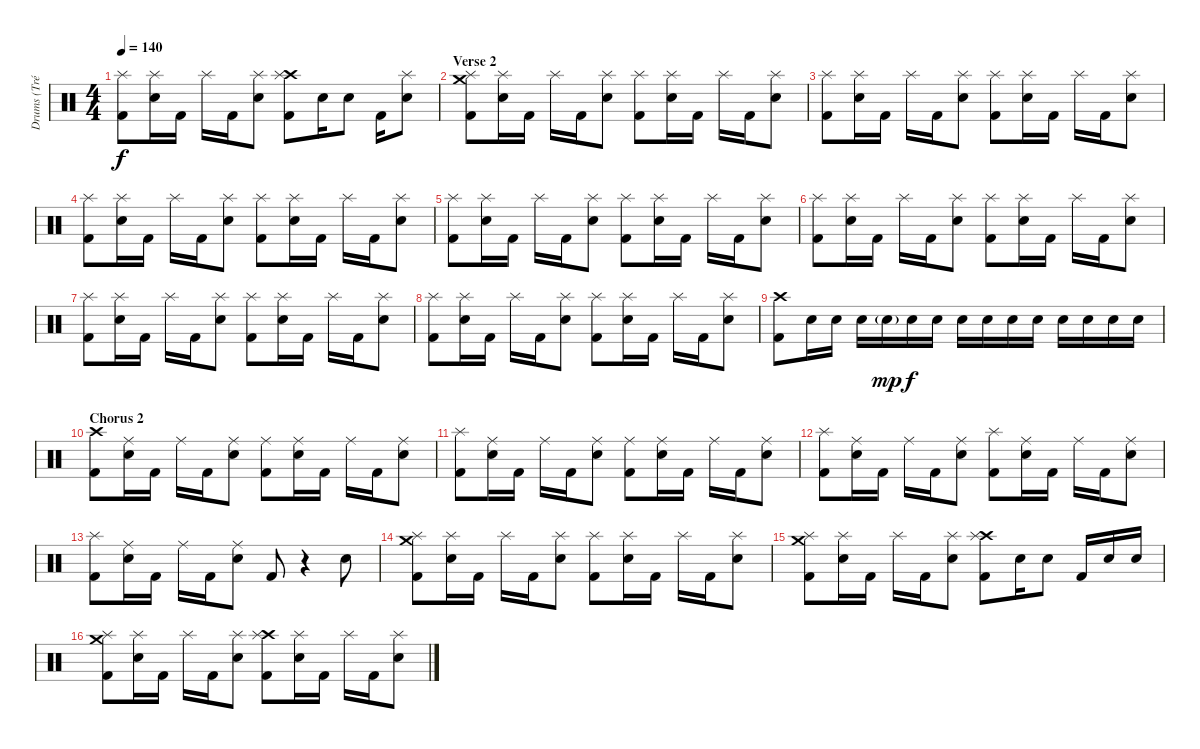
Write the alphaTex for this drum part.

\track ("Drums (Tré)" "Drums (Tré") {instrument percussion}
\staff {score}
\articulation defaults
\ts (4 4)
\tempo 140
\clef neutral
\ks c
("Splash (hit)" "Kick (hit) 2").8{dy f} ("Splash (hit)" "Electric Snare (hit)").16 "Kick (hit) 2".16 "Splash (hit)".16 "Kick (hit) 2".16 ("Splash (hit)" "Electric Snare (hit)").8 ("Crash high (hit)" "Splash (hit)" "Kick (hit) 2").8 "Electric Snare (hit)".16 "Electric Snare (hit)".8 "Kick (hit) 2".16 ("Splash (hit)" "Electric Snare (hit)").8 |
\section ("" "Verse 2")
("Crash medium (hit)" "Splash (hit)" "Kick (hit) 2").8 ("Splash (hit)" "Electric Snare (hit)").16 "Kick (hit) 2".16 "Splash (hit)".16 "Kick (hit) 2".16 ("Splash (hit)" "Electric Snare (hit)").8 ("Splash (hit)" "Kick (hit) 2").8 ("Splash (hit)" "Electric Snare (hit)").16 "Kick (hit) 2".16 "Splash (hit)".16 "Kick (hit) 2".16 ("Splash (hit)" "Electric Snare (hit)").8 |
("Splash (hit)" "Kick (hit) 2").8 ("Splash (hit)" "Electric Snare (hit)").16 "Kick (hit) 2".16 "Splash (hit)".16 "Kick (hit) 2".16 ("Splash (hit)" "Electric Snare (hit)").8 ("Splash (hit)" "Kick (hit) 2").8 ("Splash (hit)" "Electric Snare (hit)").16 "Kick (hit) 2".16 "Splash (hit)".16 "Kick (hit) 2".16 ("Splash (hit)" "Electric Snare (hit)").8 |
("Splash (hit)" "Kick (hit) 2").8 ("Splash (hit)" "Electric Snare (hit)").16 "Kick (hit) 2".16 "Splash (hit)".16 "Kick (hit) 2".16 ("Splash (hit)" "Electric Snare (hit)").8 ("Splash (hit)" "Kick (hit) 2").8 ("Splash (hit)" "Electric Snare (hit)").16 "Kick (hit) 2".16 "Splash (hit)".16 "Kick (hit) 2".16 ("Splash (hit)" "Electric Snare (hit)").8 |
("Splash (hit)" "Kick (hit) 2").8 ("Splash (hit)" "Electric Snare (hit)").16 "Kick (hit) 2".16 "Splash (hit)".16 "Kick (hit) 2".16 ("Splash (hit)" "Electric Snare (hit)").8 ("Splash (hit)" "Kick (hit) 2").8 ("Splash (hit)" "Electric Snare (hit)").16 "Kick (hit) 2".16 "Splash (hit)".16 "Kick (hit) 2".16 ("Splash (hit)" "Electric Snare (hit)").8 |
("Splash (hit)" "Kick (hit) 2").8 ("Splash (hit)" "Electric Snare (hit)").16 "Kick (hit) 2".16 "Splash (hit)".16 "Kick (hit) 2".16 ("Splash (hit)" "Electric Snare (hit)").8 ("Splash (hit)" "Kick (hit) 2").8 ("Splash (hit)" "Electric Snare (hit)").16 "Kick (hit) 2".16 "Splash (hit)".16 "Kick (hit) 2".16 ("Splash (hit)" "Electric Snare (hit)").8 |
("Splash (hit)" "Kick (hit) 2").8 ("Splash (hit)" "Electric Snare (hit)").16 "Kick (hit) 2".16 "Splash (hit)".16 "Kick (hit) 2".16 ("Splash (hit)" "Electric Snare (hit)").8 ("Splash (hit)" "Kick (hit) 2").8 ("Splash (hit)" "Electric Snare (hit)").16 "Kick (hit) 2".16 "Splash (hit)".16 "Kick (hit) 2".16 ("Splash (hit)" "Electric Snare (hit)").8 |
("Splash (hit)" "Kick (hit) 2").8 ("Splash (hit)" "Electric Snare (hit)").16 "Kick (hit) 2".16 "Splash (hit)".16 "Kick (hit) 2".16 ("Splash (hit)" "Electric Snare (hit)").8 ("Splash (hit)" "Kick (hit) 2").8 ("Splash (hit)" "Electric Snare (hit)").16 "Kick (hit) 2".16 "Splash (hit)".16 "Kick (hit) 2".16 ("Splash (hit)" "Electric Snare (hit)").8 |
("Crash high (hit)" "Kick (hit) 2").8 "Electric Snare (hit)".16 "Electric Snare (hit)".16 "Electric Snare (hit)".16 "Electric Snare (hit)"{g}.16{dy mp} "Electric Snare (hit)".16{dy f} "Electric Snare (hit)".16 "Electric Snare (hit)".16 "Electric Snare (hit)".16 "Electric Snare (hit)".16 "Electric Snare (hit)".16 "Electric Snare (hit)".16 "Electric Snare (hit)".16 "Electric Snare (hit)".16 "Electric Snare (hit)".16 |
\section ("" "Chorus 2")
("Crash high (hit)" "Kick (hit) 2").8 ("Ride (middle)" "Electric Snare (hit)").16 "Kick (hit) 2".16 "Ride (middle)".16 "Kick (hit) 2".16 ("Ride (middle)" "Electric Snare (hit)").8 ("Ride (middle)" "Kick (hit) 2").8 ("Ride (middle)" "Electric Snare (hit)").16 "Kick (hit) 2".16 "Ride (middle)".16 "Kick (hit) 2".16 ("Ride (middle)" "Electric Snare (hit)").8 |
("Splash (hit)" "Kick (hit) 2").8 ("Ride (middle)" "Electric Snare (hit)").16 "Kick (hit) 2".16 "Ride (middle)".16 "Kick (hit) 2".16 ("Ride (middle)" "Electric Snare (hit)").8 ("Ride (middle)" "Kick (hit) 2").8 ("Ride (middle)" "Electric Snare (hit)").16 "Kick (hit) 2".16 "Ride (middle)".16 "Kick (hit) 2".16 ("Ride (middle)" "Electric Snare (hit)").8 |
("Splash (hit)" "Kick (hit) 2").8 ("Ride (middle)" "Electric Snare (hit)").16 "Kick (hit) 2".16 "Ride (middle)".16 "Kick (hit) 2".16 ("Ride (middle)" "Electric Snare (hit)").8 ("Splash (hit)" "Kick (hit) 2").8 ("Ride (middle)" "Electric Snare (hit)").16 "Kick (hit) 2".16 "Ride (middle)".16 "Kick (hit) 2".16 ("Ride (middle)" "Electric Snare (hit)").8 |
("Splash (hit)" "Kick (hit) 2").8 ("Ride (middle)" "Electric Snare (hit)").16 "Kick (hit) 2".16 "Ride (middle)".16 "Kick (hit) 2".16 ("Ride (middle)" "Electric Snare (hit)").8 "Kick (hit) 2".8 r.4 "Electric Snare (hit)".8 |
("Crash medium (hit)" "Splash (hit)" "Kick (hit) 2").8 ("Splash (hit)" "Electric Snare (hit)").16 "Kick (hit) 2".16 "Splash (hit)".16 "Kick (hit) 2".16 ("Splash (hit)" "Electric Snare (hit)").8 ("Splash (hit)" "Kick (hit) 2").8 ("Splash (hit)" "Electric Snare (hit)").16 "Kick (hit) 2".16 "Splash (hit)".16 "Kick (hit) 2".16 ("Splash (hit)" "Electric Snare (hit)").8 |
("Crash medium (hit)" "Splash (hit)" "Kick (hit) 2").8 ("Splash (hit)" "Electric Snare (hit)").16 "Kick (hit) 2".16 "Splash (hit)".16 "Kick (hit) 2".16 ("Splash (hit)" "Electric Snare (hit)").8 ("Crash high (hit)" "Splash (hit)" "Kick (hit) 2").8 "Electric Snare (hit)".16 "Electric Snare (hit)".8 "Kick (hit) 2".16 "Electric Snare (hit)".16 "Electric Snare (hit)".16 |
("Crash medium (hit)" "Splash (hit)" "Kick (hit) 2").8 ("Splash (hit)" "Electric Snare (hit)").16 "Kick (hit) 2".16 "Splash (hit)".16 "Kick (hit) 2".16 ("Splash (hit)" "Electric Snare (hit)").8 ("Crash high (hit)" "Splash (hit)" "Kick (hit) 2").8 ("Splash (hit)" "Electric Snare (hit)").16 "Kick (hit) 2".16 "Splash (hit)".16 "Kick (hit) 2".16 ("Splash (hit)" "Electric Snare (hit)").8
